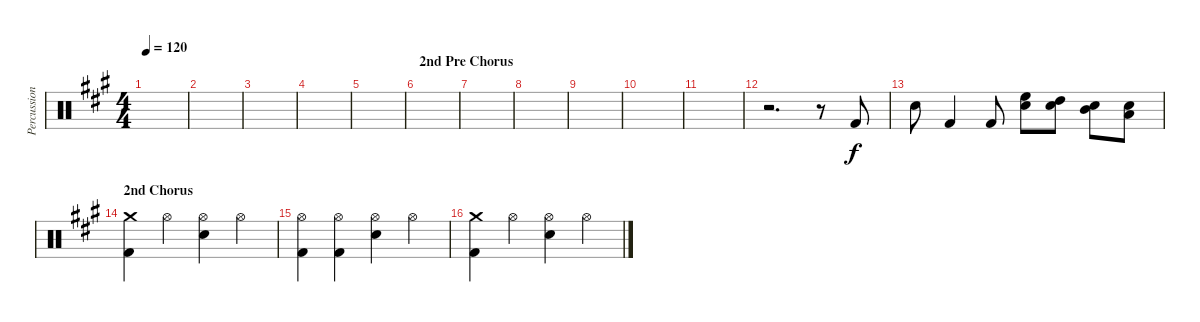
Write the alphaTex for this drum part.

\track ("Percussion" "Percussion") {instrument percussion}
\staff {score}
\articulation defaults
\ts (4 4)
\tempo 120
\clef neutral
\ks a
|
|
|
|
|
\section ("" "2nd Pre Chorus")
|
|
|
|
|
|
r.2{d} r.8 "Kick (hit) 2".8 |
"Snare (hit) 2".8 "Kick (hit) 2".4 "Kick (hit) 2".8 ("High Floor Tom (hit)" "Snare (hit) 2").8 ("High Tom (hit)" "Snare (hit) 2").8 ("Mid Tom (hit)" "Snare (hit) 2").8 ("Low Tom (hit)" "Snare (hit) 2").8 |
\section ("" "2nd Chorus")
("Crash medium (hit)" "Kick (hit) 2").4 "Hi-Hat (open)".4 ("Hi-Hat (open)" "Snare (hit) 2").4 "Hi-Hat (open)".4 |
("Hi-Hat (open)" "Kick (hit) 2").4 ("Hi-Hat (open)" "Kick (hit) 2").4 ("Hi-Hat (open)" "Snare (hit) 2").4 "Hi-Hat (open)".4 |
("Crash medium (hit)" "Kick (hit) 2").4 "Hi-Hat (open)".4 ("Hi-Hat (open)" "Snare (hit) 2").4 "Hi-Hat (open)".4
